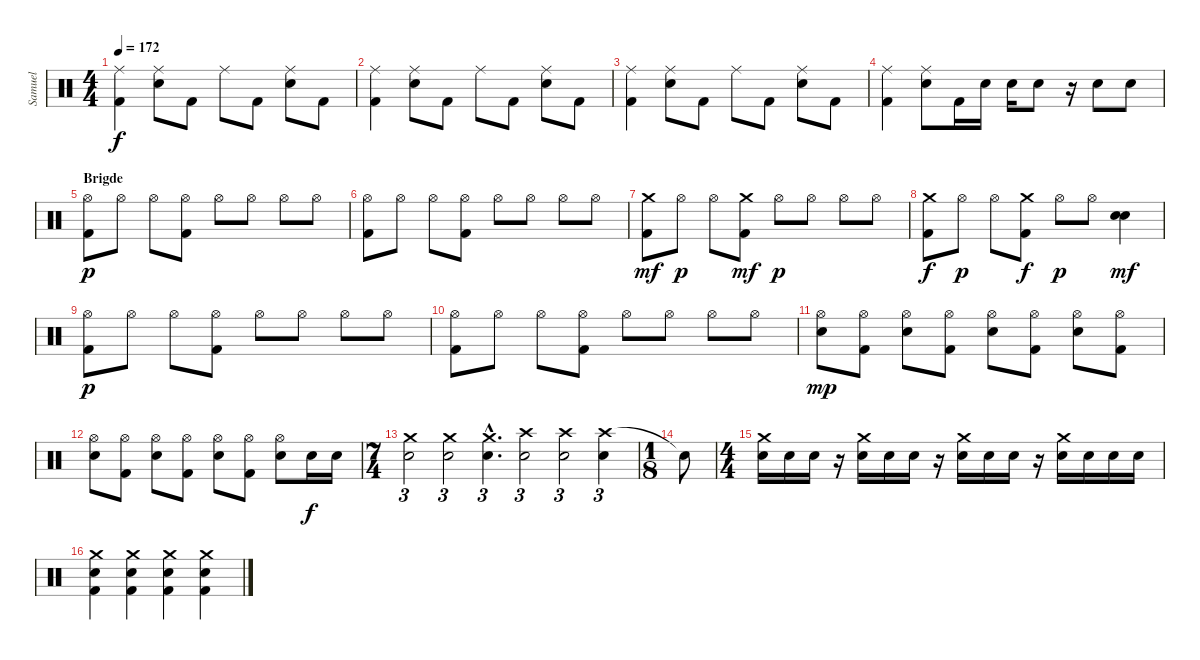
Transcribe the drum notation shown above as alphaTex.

\track ("Samuel" "Samuel") {instrument percussion}
\staff {score}
\articulation defaults
\ts (4 4)
\tempo 172
\clef neutral
\ks c
("Ride (middle)" "Kick (hit) 2").4{dy f} ("Ride (middle)" "Snare (hit) 2").8 "Kick (hit) 2".8 "Ride (middle)".8 "Kick (hit) 2".8 ("Ride (middle)" "Snare (hit) 2").8 "Kick (hit) 2".8 |
("Ride (middle)" "Kick (hit) 2").4 ("Ride (middle)" "Snare (hit) 2").8 "Kick (hit) 2".8 "Ride (middle)".8 "Kick (hit) 2".8 ("Ride (middle)" "Snare (hit) 2").8 "Kick (hit) 2".8 |
("Ride (middle)" "Kick (hit) 2").4 ("Ride (middle)" "Snare (hit) 2").8 "Kick (hit) 2".8 "Ride (middle)".8 "Kick (hit) 2".8 ("Ride (middle)" "Snare (hit) 2").8 "Kick (hit) 2".8 |
("Ride (middle)" "Kick (hit) 2").4 ("Ride (middle)" "Snare (hit) 2").8 "Kick (hit) 2".16 "Snare (hit) 2".16 "Snare (hit) 2".16 "Snare (hit) 2".8 r.16 "Snare (hit) 2".8 "Snare (hit) 2".8 |
\section ("" "Brigde")
("Hi-Hat (open)" "Kick (hit) 2").8{dy p} "Hi-Hat (open)".8 "Hi-Hat (open)".8 ("Hi-Hat (open)" "Kick (hit) 2").8 "Hi-Hat (open)".8 "Hi-Hat (open)".8 "Hi-Hat (open)".8 "Hi-Hat (open)".8 |
("Hi-Hat (open)" "Kick (hit) 2").8 "Hi-Hat (open)".8 "Hi-Hat (open)".8 ("Hi-Hat (open)" "Kick (hit) 2").8 "Hi-Hat (open)".8 "Hi-Hat (open)".8 "Hi-Hat (open)".8 "Hi-Hat (open)".8 |
("Crash medium (hit)" "Kick (hit) 2").8{dy mf} "Hi-Hat (open)".8{dy p} "Hi-Hat (open)".8 ("Crash medium (hit)" "Kick (hit) 2").8{dy mf} "Hi-Hat (open)".8{dy p} "Hi-Hat (open)".8 "Hi-Hat (open)".8 "Hi-Hat (open)".8 |
("Crash medium (hit)" "Kick (hit) 2").8{dy f} "Hi-Hat (open)".8{dy p} "Hi-Hat (open)".8 ("Crash medium (hit)" "Kick (hit) 2").8{dy f} "Hi-Hat (open)".8{dy p} "Hi-Hat (open)".8 ("Snare (hit) 2" "Snare (hit) 2").4{bu 240 dy mf} |
("Hi-Hat (open)" "Kick (hit) 2").8{dy p} "Hi-Hat (open)".8 "Hi-Hat (open)".8 ("Hi-Hat (open)" "Kick (hit) 2").8 "Hi-Hat (open)".8 "Hi-Hat (open)".8 "Hi-Hat (open)".8 "Hi-Hat (open)".8 |
("Hi-Hat (open)" "Kick (hit) 2").8 "Hi-Hat (open)".8 "Hi-Hat (open)".8 ("Hi-Hat (open)" "Kick (hit) 2").8 "Hi-Hat (open)".8 "Hi-Hat (open)".8 "Hi-Hat (open)".8 "Hi-Hat (open)".8 |
("Hi-Hat (open)" "Snare (hit) 2").8{dy mp} ("Hi-Hat (open)" "Kick (hit) 2").8 ("Hi-Hat (open)" "Snare (hit) 2").8 ("Hi-Hat (open)" "Kick (hit) 2").8 ("Hi-Hat (open)" "Snare (hit) 2").8 ("Hi-Hat (open)" "Kick (hit) 2").8 ("Hi-Hat (open)" "Snare (hit) 2").8 ("Hi-Hat (open)" "Kick (hit) 2").8 |
("Hi-Hat (open)" "Snare (hit) 2").8 ("Hi-Hat (open)" "Kick (hit) 2").8 ("Hi-Hat (open)" "Snare (hit) 2").8 ("Hi-Hat (open)" "Kick (hit) 2").8 ("Hi-Hat (open)" "Snare (hit) 2").8 ("Hi-Hat (open)" "Kick (hit) 2").8 ("Hi-Hat (open)" "Snare (hit) 2").8 "Snare (hit) 2".16{dy f} "Snare (hit) 2".16 |
\ts (7 4)
("Crash medium (hit)" "Snare (hit) 2").2{tu (3 2)} ("Crash medium (hit)" "Snare (hit) 2").2{tu (3 2)} ("Crash medium (hit)"{hac} "Snare (hit) 2"{hac}).4{d tu (3 2)} ("Crash high (hit)" "Snare (hit) 2").2{tu (3 2)} ("Crash high (hit)" "Snare (hit) 2").2{tu (3 2)} ("Crash high (hit)" "Snare (hit) 2").4{tu (3 2)} |
\ts (1 8)
"Snare (hit)"{t}.8 |
\ts (4 4)
("Crash medium (hit)" "Snare (hit) 2").16 "Snare (hit) 2".16 "Snare (hit) 2".16 r.16 ("Crash medium (hit)" "Snare (hit) 2").16 "Snare (hit) 2".16 "Snare (hit) 2".16 r.16 ("Crash medium (hit)" "Snare (hit) 2").16 "Snare (hit) 2".16 "Snare (hit) 2".16 r.16 ("Crash medium (hit)" "Snare (hit) 2").16 "Snare (hit) 2".16 "Snare (hit) 2".16 "Snare (hit) 2".16 |
("Crash medium (hit)" "Snare (hit) 2" "Kick (hit) 2").4 ("Crash medium (hit)" "Snare (hit) 2" "Kick (hit) 2").4 ("Crash medium (hit)" "Snare (hit) 2" "Kick (hit) 2").4 ("Crash medium (hit)" "Snare (hit) 2" "Kick (hit) 2").4
